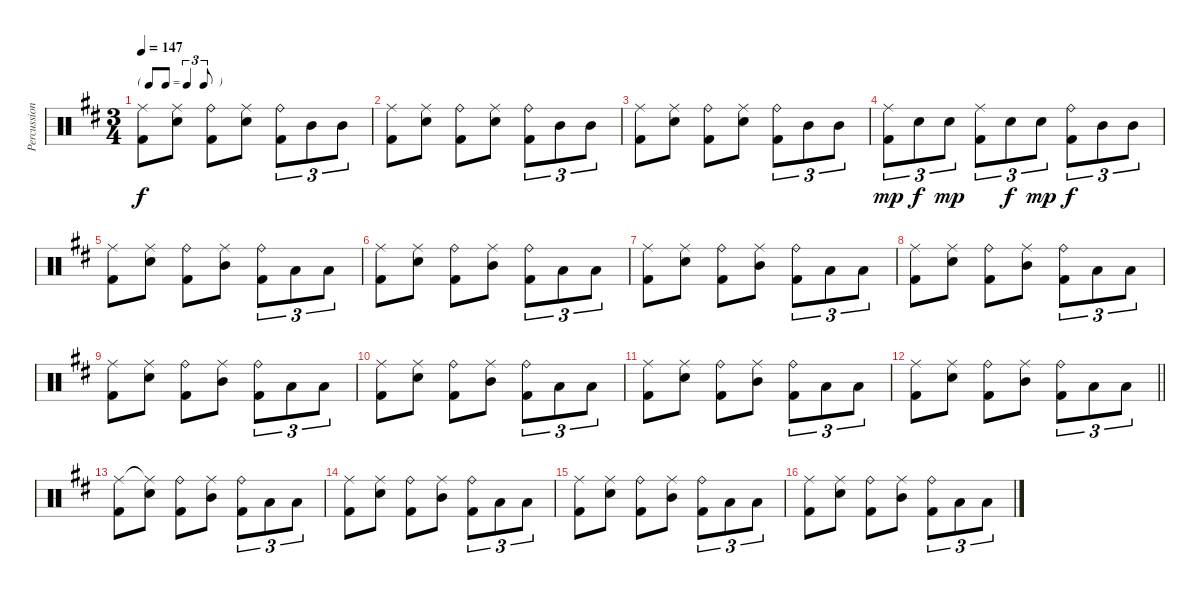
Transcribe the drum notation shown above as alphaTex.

\track ("Percussion" "Percussion") {instrument percussion}
\staff {score}
\articulation defaults
\ts (3 4)
\tf triplet8th
\tempo 147
\clef neutral
\ks d
("Ride (middle)" "Kick (hit) 2").8{dy f} ("Ride (middle)" "Snare (hit) 2").8 ("Ride (bell)" "Kick (hit) 2").8 ("Ride (middle)" "Snare (hit) 2").8 ("Ride (bell)" "Kick (hit) 2").8{tu (3 2)} "Mid Tom (hit)".8{tu (3 2)} "Mid Tom (hit)".8{tu (3 2)} |
("Ride (middle)" "Kick (hit) 2").8 ("Ride (middle)" "Snare (hit) 2").8 ("Ride (bell)" "Kick (hit) 2").8 ("Ride (middle)" "Snare (hit) 2").8 ("Ride (bell)" "Kick (hit) 2").8{tu (3 2)} "Mid Tom (hit)".8{tu (3 2)} "Mid Tom (hit)".8{tu (3 2)} |
("Ride (middle)" "Kick (hit) 2").8 ("Ride (middle)" "Snare (hit) 2").8 ("Ride (bell)" "Kick (hit) 2").8 ("Ride (middle)" "Snare (hit) 2").8 ("Ride (bell)" "Kick (hit) 2").8{tu (3 2)} "Mid Tom (hit)".8{tu (3 2)} "Mid Tom (hit)".8{tu (3 2)} |
("Ride (middle)" "Kick (hit) 2").8{tu (3 2) dy mp} "Snare (hit) 2".8{tu (3 2) dy f} "Snare (hit) 2".8{tu (3 2) dy mp} ("Ride (middle)" "Kick (hit) 2").8{tu (3 2)} "Snare (hit) 2".8{tu (3 2) dy f} "Snare (hit) 2".8{tu (3 2) dy mp} ("Ride (bell)" "Kick (hit) 2").8{tu (3 2) dy f} "Mid Tom (hit)".8{tu (3 2)} "Mid Tom (hit)".8{tu (3 2)} |
("Ride (middle)" "Kick (hit) 2").8 ("Ride (middle)" "Snare (hit) 2").8 ("Ride (bell)" "Kick (hit) 2").8 ("Ride (middle)" "Mid Tom (hit)").8 ("Ride (bell)" "Kick (hit) 2").8{tu (3 2)} "Low Floor Tom (hit)".8{tu (3 2)} "Low Floor Tom (hit)".8{tu (3 2)} |
("Ride (middle)" "Kick (hit) 2").8 ("Ride (middle)" "Snare (hit) 2").8 ("Ride (bell)" "Kick (hit) 2").8 ("Ride (middle)" "Mid Tom (hit)").8 ("Ride (bell)" "Kick (hit) 2").8{tu (3 2)} "Low Floor Tom (hit)".8{tu (3 2)} "Low Floor Tom (hit)".8{tu (3 2)} |
("Ride (middle)" "Kick (hit) 2").8 ("Ride (middle)" "Snare (hit) 2").8 ("Ride (bell)" "Kick (hit) 2").8 ("Ride (middle)" "Mid Tom (hit)").8 ("Ride (bell)" "Kick (hit) 2").8{tu (3 2)} "Low Floor Tom (hit)".8{tu (3 2)} "Low Floor Tom (hit)".8{tu (3 2)} |
("Ride (middle)" "Kick (hit) 2").8 ("Ride (middle)" "Snare (hit) 2").8 ("Ride (bell)" "Kick (hit) 2").8 ("Ride (middle)" "Mid Tom (hit)").8 ("Ride (bell)" "Kick (hit) 2").8{tu (3 2)} "Low Floor Tom (hit)".8{tu (3 2)} "Low Floor Tom (hit)".8{tu (3 2)} |
("Ride (middle)" "Kick (hit) 2").8 ("Ride (middle)" "Snare (hit) 2").8 ("Ride (bell)" "Kick (hit) 2").8 ("Ride (middle)" "Mid Tom (hit)").8 ("Ride (bell)" "Kick (hit) 2").8{tu (3 2)} "Low Floor Tom (hit)".8{tu (3 2)} "Low Floor Tom (hit)".8{tu (3 2)} |
("Ride (middle)" "Kick (hit) 2").8 ("Ride (middle)" "Snare (hit) 2").8 ("Ride (bell)" "Kick (hit) 2").8 ("Ride (middle)" "Mid Tom (hit)").8 ("Ride (bell)" "Kick (hit) 2").8{tu (3 2)} "Low Floor Tom (hit)".8{tu (3 2)} "Low Floor Tom (hit)".8{tu (3 2)} |
("Ride (middle)" "Kick (hit) 2").8 ("Ride (middle)" "Snare (hit) 2").8 ("Ride (bell)" "Kick (hit) 2").8 ("Ride (middle)" "Mid Tom (hit)").8 ("Ride (bell)" "Kick (hit) 2").8{tu (3 2)} "Low Floor Tom (hit)".8{tu (3 2)} "Low Floor Tom (hit)".8{tu (3 2)} |
\barLineRight lightlight
("Ride (middle)" "Kick (hit) 2").8 ("Ride (middle)" "Snare (hit) 2").8 ("Ride (bell)" "Kick (hit) 2").8 ("Ride (middle)" "Mid Tom (hit)").8 ("Ride (bell)" "Kick (hit) 2").8{tu (3 2)} "Low Floor Tom (hit)".8{tu (3 2)} "Low Floor Tom (hit)".8{tu (3 2)} |
("Ride (middle)" "Kick (hit) 2").8 ("Ride (middle)"{t} "Snare (hit) 2").8 ("Ride (bell)" "Kick (hit) 2").8 ("Ride (middle)" "Mid Tom (hit)").8 ("Ride (bell)" "Kick (hit) 2").8{tu (3 2)} "Low Floor Tom (hit)".8{tu (3 2)} "Low Floor Tom (hit)".8{tu (3 2)} |
("Ride (middle)" "Kick (hit) 2").8 ("Ride (middle)" "Snare (hit) 2").8 ("Ride (bell)" "Kick (hit) 2").8 ("Ride (middle)" "Mid Tom (hit)").8 ("Ride (bell)" "Kick (hit) 2").8{tu (3 2)} "Low Floor Tom (hit)".8{tu (3 2)} "Low Floor Tom (hit)".8{tu (3 2)} |
("Ride (middle)" "Kick (hit) 2").8 ("Ride (middle)" "Snare (hit) 2").8 ("Ride (bell)" "Kick (hit) 2").8 ("Ride (middle)" "Mid Tom (hit)").8 ("Ride (bell)" "Kick (hit) 2").8{tu (3 2)} "Low Floor Tom (hit)".8{tu (3 2)} "Low Floor Tom (hit)".8{tu (3 2)} |
("Ride (middle)" "Kick (hit) 2").8 ("Ride (middle)" "Snare (hit) 2").8 ("Ride (bell)" "Kick (hit) 2").8 ("Ride (middle)" "Mid Tom (hit)").8 ("Ride (bell)" "Kick (hit) 2").8{tu (3 2)} "Low Floor Tom (hit)".8{tu (3 2)} "Low Floor Tom (hit)".8{tu (3 2)}
